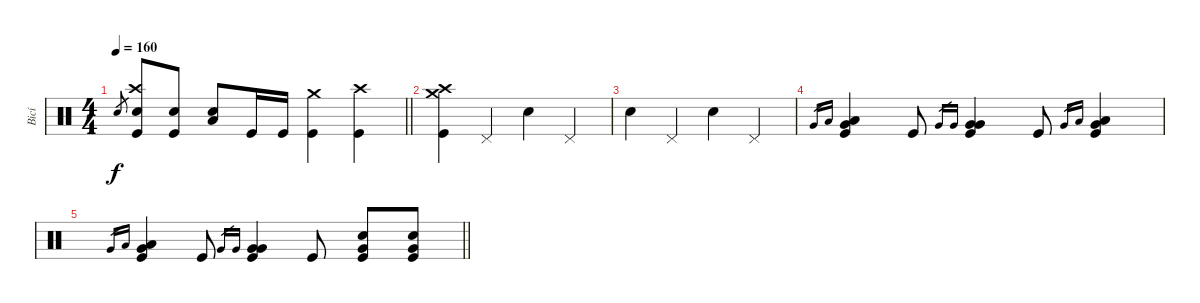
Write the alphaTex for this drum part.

\track ("Bicí" "Bicí") {instrument percussion}
\staff {score}
\articulation defaults
\ts (4 4)
\tempo 160
\clef neutral
\barLineRight lightlight
\ks c "Electric Snare (hit)".8{gr dy f}
("Crash high (hit)" "Electric Snare (hit)" "Kick (hit)").8 ("Electric Snare (hit)" "Kick (hit)").8 ("Low Tom (hit)" "Electric Snare (hit)").8 "Kick (hit)".16 "Kick (hit)".16 ("Crash medium (hit)" "Kick (hit)").4 ("Crash high (hit)" "Kick (hit)").4 |
("Crash medium (hit)" "Crash high (hit)" "Kick (hit)").4 "Pedal Hi-Hat (hit)".4 "Snare (hit)".4 "Pedal Hi-Hat (hit)".4 |
"Snare (hit)".4 "Pedal Hi-Hat (hit)".4 "Snare (hit)".4 "Pedal Hi-Hat (hit)".4 |
"Very Low Tom (hit)".16{gr} "Low Tom (hit)".16{gr} ("Very Low Tom (hit)" "Low Tom (hit)" "Kick (hit)").4 "Kick (hit)".8 "Very Low Tom (hit)".16{gr} "Very Low Tom (hit)".16{gr} ("Very Low Tom (hit)" "Very Low Tom (hit)" "Kick (hit)").4 "Kick (hit)".8 "Very Low Tom (hit)".16{gr} "Low Floor Tom (hit)".16{gr} ("Very Low Tom (hit)" "Low Floor Tom (hit)" "Kick (hit)").4 |
\barLineRight lightlight "Very Low Tom (hit)".16{gr} "Low Tom (hit)".16{gr}
("Very Low Tom (hit)" "Low Tom (hit)" "Kick (hit)").4 "Kick (hit)".8 "Very Low Tom (hit)".16{gr} "Very Low Tom (hit)".16{gr} ("Very Low Tom (hit)" "Very Low Tom (hit)" "Kick (hit)").4 "Kick (hit)".8 ("Very Low Tom (hit)" "Kick (hit)" "Electric Snare (hit)").8 ("Very Low Tom (hit)" "Kick (hit)" "Electric Snare (hit)").8
